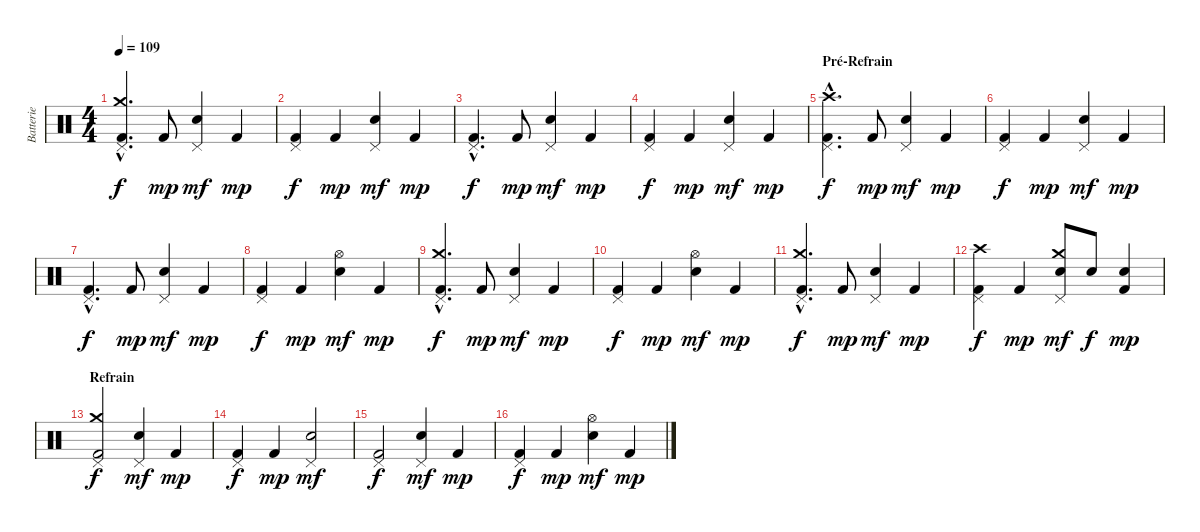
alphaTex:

\track ("Batterie" "Batterie") {instrument percussion}
\staff {score}
\articulation defaults
\ts (4 4)
\tempo 109
\clef neutral
\ks c
("Pedal Hi-Hat (hit)"{hac} "Crash medium (hit)"{hac} "Kick (hit) 2"{hac}).4{d dy f} "Kick (hit) 2".8{dy mp} ("Pedal Hi-Hat (hit)" "Electric Snare (hit)").4{dy mf} "Kick (hit) 2".4{dy mp} |
("Pedal Hi-Hat (hit)" "Kick (hit) 2").4{dy f} "Kick (hit) 2".4{dy mp} ("Pedal Hi-Hat (hit)" "Electric Snare (hit)").4{dy mf} "Kick (hit) 2".4{dy mp} |
("Pedal Hi-Hat (hit)"{hac} "Kick (hit) 2"{hac}).4{d dy f} "Kick (hit) 2".8{dy mp} ("Pedal Hi-Hat (hit)" "Electric Snare (hit)").4{dy mf} "Kick (hit) 2".4{dy mp} |
("Pedal Hi-Hat (hit)" "Kick (hit) 2").4{dy f} "Kick (hit) 2".4{dy mp} ("Pedal Hi-Hat (hit)" "Electric Snare (hit)").4{dy mf} "Kick (hit) 2".4{dy mp} |
\section ("" "Pré-Refrain")
("Pedal Hi-Hat (hit)"{hac} "Crash high (hit)"{hac} "Kick (hit) 2"{hac}).4{d dy f} "Kick (hit) 2".8{dy mp} ("Pedal Hi-Hat (hit)" "Electric Snare (hit)").4{dy mf} "Kick (hit) 2".4{dy mp} |
("Pedal Hi-Hat (hit)" "Kick (hit) 2").4{dy f} "Kick (hit) 2".4{dy mp} ("Pedal Hi-Hat (hit)" "Electric Snare (hit)").4{dy mf} "Kick (hit) 2".4{dy mp} |
("Pedal Hi-Hat (hit)"{hac} "Kick (hit) 2"{hac}).4{d dy f} "Kick (hit) 2".8{dy mp} ("Pedal Hi-Hat (hit)" "Electric Snare (hit)").4{dy mf} "Kick (hit) 2".4{dy mp} |
("Pedal Hi-Hat (hit)" "Kick (hit) 2").4{dy f} "Kick (hit) 2".4{dy mp} ("Hi-Hat (open)" "Electric Snare (hit)").4{dy mf} "Kick (hit) 2".4{dy mp} |
("Pedal Hi-Hat (hit)"{hac} "Crash medium (hit)"{hac} "Kick (hit) 2"{hac}).4{d dy f} "Kick (hit) 2".8{dy mp} ("Pedal Hi-Hat (hit)" "Electric Snare (hit)").4{dy mf} "Kick (hit) 2".4{dy mp} |
("Pedal Hi-Hat (hit)" "Kick (hit) 2").4{dy f} "Kick (hit) 2".4{dy mp} ("Hi-Hat (open)" "Electric Snare (hit)").4{dy mf} "Kick (hit) 2".4{dy mp} |
("Pedal Hi-Hat (hit)"{hac} "Crash medium (hit)"{hac} "Kick (hit) 2"{hac}).4{d dy f} "Kick (hit) 2".8{dy mp} ("Pedal Hi-Hat (hit)" "Electric Snare (hit)").4{dy mf} "Kick (hit) 2".4{dy mp} |
("Pedal Hi-Hat (hit)" "Crash high (hit)" "Kick (hit) 2").4{dy f} "Kick (hit) 2".4{dy mp} ("Pedal Hi-Hat (hit)" "Crash medium (hit)" "Electric Snare (hit)").8{dy mf} "Electric Snare (hit)".8{dy f} ("Electric Snare (hit)" "Kick (hit) 2").4{dy mp} |
\section ("" "Refrain")
("Pedal Hi-Hat (hit)" "Crash medium (hit)" "Kick (hit) 2").2{dy f} ("Pedal Hi-Hat (hit)" "Electric Snare (hit)").4{dy mf} "Kick (hit) 2".4{dy mp} |
("Pedal Hi-Hat (hit)" "Kick (hit) 2").4{dy f} "Kick (hit) 2".4{dy mp} ("Pedal Hi-Hat (hit)" "Electric Snare (hit)").2{dy mf} |
("Pedal Hi-Hat (hit)" "Kick (hit) 2").2{dy f} ("Pedal Hi-Hat (hit)" "Electric Snare (hit)").4{dy mf} "Kick (hit) 2".4{dy mp} |
("Pedal Hi-Hat (hit)" "Kick (hit) 2").4{dy f} "Kick (hit) 2".4{dy mp} ("Hi-Hat (open)" "Electric Snare (hit)").4{dy mf} "Kick (hit) 2".4{dy mp}
